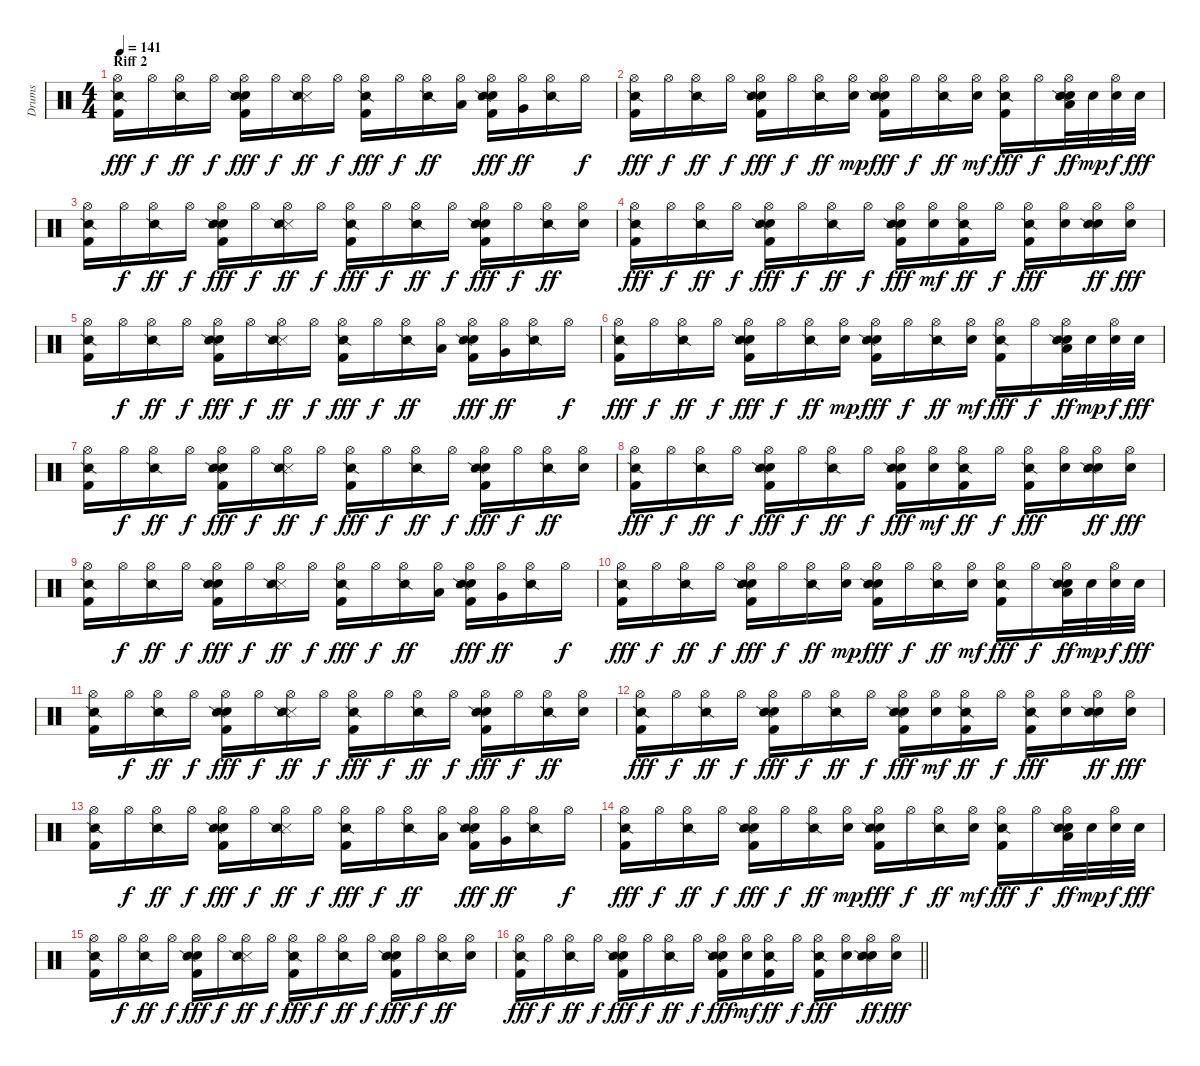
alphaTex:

\track ("Drums" "Drums") {instrument percussion}
\staff {score}
\articulation defaults
\ts (4 4)
\section ("" "Riff 2")
\tempo 141
\clef neutral
\ks c
("Kick (hit) 2" "Hi-Hat (open)" "Snare (side stick) 2").16{dy fff} "Hi-Hat (open)".16{dy f} ("Hi-Hat (open)" "Snare (side stick) 2").16{dy ff} "Hi-Hat (open)".16{dy f} ("Kick (hit) 2" "Snare (hit) 2" "Hi-Hat (open)" "Snare (side stick) 2").16{dy fff} "Hi-Hat (open)".16{dy f} ("Snare (side stick) 3" "Hi-Hat (open)" "Snare (side stick) 2").16{dy ff} "Hi-Hat (open)".16{dy f} ("Kick (hit) 2" "Hi-Hat (open)" "Snare (side stick) 2").16{dy fff} "Hi-Hat (open)".16{dy f} ("Hi-Hat (open)" "Snare (side stick) 2").16{dy ff} ("Hi-Hat (open)" "Low Floor Tom (hit)").16 ("Kick (hit) 2" "Snare (hit) 2" "Hi-Hat (open)" "Snare (side stick) 2").16{dy fff} ("Hi-Hat (open)" "Very Low Tom (hit)").16{dy ff} ("Hi-Hat (open)" "Snare (side stick) 2").16 "Hi-Hat (open)".16{dy f} |
("Kick (hit) 2" "Hi-Hat (open)" "Snare (side stick) 2").16{dy fff} "Hi-Hat (open)".16{dy f} ("Hi-Hat (open)" "Snare (side stick) 2").16{dy ff} "Hi-Hat (open)".16{dy f} ("Kick (hit) 2" "Snare (hit) 2" "Hi-Hat (open)" "Snare (side stick) 2").16{dy fff} "Hi-Hat (open)".16{dy f} ("Hi-Hat (open)" "Snare (side stick) 2").16{dy ff} ("Snare (hit) 2" "Hi-Hat (open)").16{dy mp} ("Kick (hit) 2" "Snare (hit) 2" "Hi-Hat (open)" "Snare (side stick) 2").16{dy fff} "Hi-Hat (open)".16{dy f} ("Hi-Hat (open)" "Snare (side stick) 2").16{dy ff} ("Snare (hit) 2" "Hi-Hat (open)").16{dy mf} ("Kick (hit) 2" "Hi-Hat (open)" "Snare (side stick) 2").16{dy fff} "Hi-Hat (open)".16{dy f} ("Snare (hit) 2" "Hi-Hat (open)" "Low Tom (hit)" "Snare (side stick) 2").32{dy ff} "Snare (hit) 2".32{dy mp} ("Snare (hit) 2" "Hi-Hat (open)").32{dy f} "Snare (hit) 2".32{dy fff} |
("Kick (hit) 2" "Hi-Hat (open)" "Snare (side stick) 2").16 "Hi-Hat (open)".16{dy f} ("Hi-Hat (open)" "Snare (side stick) 2").16{dy ff} "Hi-Hat (open)".16{dy f} ("Kick (hit) 2" "Snare (hit) 2" "Hi-Hat (open)" "Snare (side stick) 2").16{dy fff} "Hi-Hat (open)".16{dy f} ("Snare (side stick) 3" "Hi-Hat (open)" "Snare (side stick) 2").16{dy ff} "Hi-Hat (open)".16{dy f} ("Kick (hit) 2" "Hi-Hat (open)" "Snare (side stick) 2").16{dy fff} "Hi-Hat (open)".16{dy f} ("Hi-Hat (open)" "Snare (side stick) 2").16{dy ff} "Hi-Hat (open)".16{dy f} ("Kick (hit) 2" "Snare (hit) 2" "Hi-Hat (open)" "Snare (side stick) 2").16{dy fff} "Hi-Hat (open)".16{dy f} ("Hi-Hat (open)" "Snare (side stick) 2").16{dy ff} ("Snare (hit) 2" "Hi-Hat (open)").16 |
("Kick (hit) 2" "Hi-Hat (open)" "Snare (side stick) 2").16{dy fff} "Hi-Hat (open)".16{dy f} ("Hi-Hat (open)" "Snare (side stick) 2").16{dy ff} "Hi-Hat (open)".16{dy f} ("Kick (hit) 2" "Snare (hit) 2" "Hi-Hat (open)" "Snare (side stick) 2").16{dy fff} "Hi-Hat (open)".16{dy f} ("Hi-Hat (open)" "Snare (side stick) 2").16{dy ff} "Hi-Hat (open)".16{dy f} ("Kick (hit) 2" "Snare (hit) 2" "Hi-Hat (open)" "Snare (side stick) 2").16{dy fff} ("Snare (hit) 2" "Hi-Hat (open)").16{dy mf} ("Kick (hit) 2" "Hi-Hat (open)" "Snare (side stick) 2").16{dy ff} "Hi-Hat (open)".16{dy f} ("Kick (hit) 2" "Hi-Hat (open)" "Snare (side stick) 2").16{dy fff} ("Snare (hit) 2" "Hi-Hat (open)").16 ("Snare (hit) 2" "Hi-Hat (open)" "Snare (side stick) 2").16{dy ff} ("Snare (hit) 2" "Hi-Hat (open)").16{dy fff} |
("Kick (hit) 2" "Hi-Hat (open)" "Snare (side stick) 2").16 "Hi-Hat (open)".16{dy f} ("Hi-Hat (open)" "Snare (side stick) 2").16{dy ff} "Hi-Hat (open)".16{dy f} ("Kick (hit) 2" "Snare (hit) 2" "Hi-Hat (open)" "Snare (side stick) 2").16{dy fff} "Hi-Hat (open)".16{dy f} ("Snare (side stick) 3" "Hi-Hat (open)" "Snare (side stick) 2").16{dy ff} "Hi-Hat (open)".16{dy f} ("Kick (hit) 2" "Hi-Hat (open)" "Snare (side stick) 2").16{dy fff} "Hi-Hat (open)".16{dy f} ("Hi-Hat (open)" "Snare (side stick) 2").16{dy ff} ("Hi-Hat (open)" "Low Floor Tom (hit)").16 ("Kick (hit) 2" "Snare (hit) 2" "Hi-Hat (open)" "Snare (side stick) 2").16{dy fff} ("Hi-Hat (open)" "Very Low Tom (hit)").16{dy ff} ("Hi-Hat (open)" "Snare (side stick) 2").16 "Hi-Hat (open)".16{dy f} |
("Kick (hit) 2" "Hi-Hat (open)" "Snare (side stick) 2").16{dy fff} "Hi-Hat (open)".16{dy f} ("Hi-Hat (open)" "Snare (side stick) 2").16{dy ff} "Hi-Hat (open)".16{dy f} ("Kick (hit) 2" "Snare (hit) 2" "Hi-Hat (open)" "Snare (side stick) 2").16{dy fff} "Hi-Hat (open)".16{dy f} ("Hi-Hat (open)" "Snare (side stick) 2").16{dy ff} ("Snare (hit) 2" "Hi-Hat (open)").16{dy mp} ("Kick (hit) 2" "Snare (hit) 2" "Hi-Hat (open)" "Snare (side stick) 2").16{dy fff} "Hi-Hat (open)".16{dy f} ("Hi-Hat (open)" "Snare (side stick) 2").16{dy ff} ("Snare (hit) 2" "Hi-Hat (open)").16{dy mf} ("Kick (hit) 2" "Hi-Hat (open)" "Snare (side stick) 2").16{dy fff} "Hi-Hat (open)".16{dy f} ("Snare (hit) 2" "Hi-Hat (open)" "Low Tom (hit)" "Snare (side stick) 2").32{dy ff} "Snare (hit) 2".32{dy mp} ("Snare (hit) 2" "Hi-Hat (open)").32{dy f} "Snare (hit) 2".32{dy fff} |
("Kick (hit) 2" "Hi-Hat (open)" "Snare (side stick) 2").16 "Hi-Hat (open)".16{dy f} ("Hi-Hat (open)" "Snare (side stick) 2").16{dy ff} "Hi-Hat (open)".16{dy f} ("Kick (hit) 2" "Snare (hit) 2" "Hi-Hat (open)" "Snare (side stick) 2").16{dy fff} "Hi-Hat (open)".16{dy f} ("Snare (side stick) 3" "Hi-Hat (open)" "Snare (side stick) 2").16{dy ff} "Hi-Hat (open)".16{dy f} ("Kick (hit) 2" "Hi-Hat (open)" "Snare (side stick) 2").16{dy fff} "Hi-Hat (open)".16{dy f} ("Hi-Hat (open)" "Snare (side stick) 2").16{dy ff} "Hi-Hat (open)".16{dy f} ("Kick (hit) 2" "Snare (hit) 2" "Hi-Hat (open)" "Snare (side stick) 2").16{dy fff} "Hi-Hat (open)".16{dy f} ("Hi-Hat (open)" "Snare (side stick) 2").16{dy ff} ("Snare (hit) 2" "Hi-Hat (open)").16 |
("Kick (hit) 2" "Hi-Hat (open)" "Snare (side stick) 2").16{dy fff} "Hi-Hat (open)".16{dy f} ("Hi-Hat (open)" "Snare (side stick) 2").16{dy ff} "Hi-Hat (open)".16{dy f} ("Kick (hit) 2" "Snare (hit) 2" "Hi-Hat (open)" "Snare (side stick) 2").16{dy fff} "Hi-Hat (open)".16{dy f} ("Hi-Hat (open)" "Snare (side stick) 2").16{dy ff} "Hi-Hat (open)".16{dy f} ("Kick (hit) 2" "Snare (hit) 2" "Hi-Hat (open)" "Snare (side stick) 2").16{dy fff} ("Snare (hit) 2" "Hi-Hat (open)").16{dy mf} ("Kick (hit) 2" "Hi-Hat (open)" "Snare (side stick) 2").16{dy ff} "Hi-Hat (open)".16{dy f} ("Kick (hit) 2" "Hi-Hat (open)" "Snare (side stick) 2").16{dy fff} ("Snare (hit) 2" "Hi-Hat (open)").16 ("Snare (hit) 2" "Hi-Hat (open)" "Snare (side stick) 2").16{dy ff} ("Snare (hit) 2" "Hi-Hat (open)").16{dy fff} |
("Kick (hit) 2" "Hi-Hat (open)" "Snare (side stick) 2").16 "Hi-Hat (open)".16{dy f} ("Hi-Hat (open)" "Snare (side stick) 2").16{dy ff} "Hi-Hat (open)".16{dy f} ("Kick (hit) 2" "Snare (hit) 2" "Hi-Hat (open)" "Snare (side stick) 2").16{dy fff} "Hi-Hat (open)".16{dy f} ("Snare (side stick) 3" "Hi-Hat (open)" "Snare (side stick) 2").16{dy ff} "Hi-Hat (open)".16{dy f} ("Kick (hit) 2" "Hi-Hat (open)" "Snare (side stick) 2").16{dy fff} "Hi-Hat (open)".16{dy f} ("Hi-Hat (open)" "Snare (side stick) 2").16{dy ff} ("Hi-Hat (open)" "Low Floor Tom (hit)").16 ("Kick (hit) 2" "Snare (hit) 2" "Hi-Hat (open)" "Snare (side stick) 2").16{dy fff} ("Hi-Hat (open)" "Very Low Tom (hit)").16{dy ff} ("Hi-Hat (open)" "Snare (side stick) 2").16 "Hi-Hat (open)".16{dy f} |
("Kick (hit) 2" "Hi-Hat (open)" "Snare (side stick) 2").16{dy fff} "Hi-Hat (open)".16{dy f} ("Hi-Hat (open)" "Snare (side stick) 2").16{dy ff} "Hi-Hat (open)".16{dy f} ("Kick (hit) 2" "Snare (hit) 2" "Hi-Hat (open)" "Snare (side stick) 2").16{dy fff} "Hi-Hat (open)".16{dy f} ("Hi-Hat (open)" "Snare (side stick) 2").16{dy ff} ("Snare (hit) 2" "Hi-Hat (open)").16{dy mp} ("Kick (hit) 2" "Snare (hit) 2" "Hi-Hat (open)" "Snare (side stick) 2").16{dy fff} "Hi-Hat (open)".16{dy f} ("Hi-Hat (open)" "Snare (side stick) 2").16{dy ff} ("Snare (hit) 2" "Hi-Hat (open)").16{dy mf} ("Kick (hit) 2" "Hi-Hat (open)" "Snare (side stick) 2").16{dy fff} "Hi-Hat (open)".16{dy f} ("Snare (hit) 2" "Hi-Hat (open)" "Low Tom (hit)" "Snare (side stick) 2").32{dy ff} "Snare (hit) 2".32{dy mp} ("Snare (hit) 2" "Hi-Hat (open)").32{dy f} "Snare (hit) 2".32{dy fff} |
("Kick (hit) 2" "Hi-Hat (open)" "Snare (side stick) 2").16 "Hi-Hat (open)".16{dy f} ("Hi-Hat (open)" "Snare (side stick) 2").16{dy ff} "Hi-Hat (open)".16{dy f} ("Kick (hit) 2" "Snare (hit) 2" "Hi-Hat (open)" "Snare (side stick) 2").16{dy fff} "Hi-Hat (open)".16{dy f} ("Snare (side stick) 3" "Hi-Hat (open)" "Snare (side stick) 2").16{dy ff} "Hi-Hat (open)".16{dy f} ("Kick (hit) 2" "Hi-Hat (open)" "Snare (side stick) 2").16{dy fff} "Hi-Hat (open)".16{dy f} ("Hi-Hat (open)" "Snare (side stick) 2").16{dy ff} "Hi-Hat (open)".16{dy f} ("Kick (hit) 2" "Snare (hit) 2" "Hi-Hat (open)" "Snare (side stick) 2").16{dy fff} "Hi-Hat (open)".16{dy f} ("Hi-Hat (open)" "Snare (side stick) 2").16{dy ff} ("Snare (hit) 2" "Hi-Hat (open)").16 |
("Kick (hit) 2" "Hi-Hat (open)" "Snare (side stick) 2").16{dy fff} "Hi-Hat (open)".16{dy f} ("Hi-Hat (open)" "Snare (side stick) 2").16{dy ff} "Hi-Hat (open)".16{dy f} ("Kick (hit) 2" "Snare (hit) 2" "Hi-Hat (open)" "Snare (side stick) 2").16{dy fff} "Hi-Hat (open)".16{dy f} ("Hi-Hat (open)" "Snare (side stick) 2").16{dy ff} "Hi-Hat (open)".16{dy f} ("Kick (hit) 2" "Snare (hit) 2" "Hi-Hat (open)" "Snare (side stick) 2").16{dy fff} ("Snare (hit) 2" "Hi-Hat (open)").16{dy mf} ("Kick (hit) 2" "Hi-Hat (open)" "Snare (side stick) 2").16{dy ff} "Hi-Hat (open)".16{dy f} ("Kick (hit) 2" "Hi-Hat (open)" "Snare (side stick) 2").16{dy fff} ("Snare (hit) 2" "Hi-Hat (open)").16 ("Snare (hit) 2" "Hi-Hat (open)" "Snare (side stick) 2").16{dy ff} ("Snare (hit) 2" "Hi-Hat (open)").16{dy fff} |
("Kick (hit) 2" "Hi-Hat (open)" "Snare (side stick) 2").16 "Hi-Hat (open)".16{dy f} ("Hi-Hat (open)" "Snare (side stick) 2").16{dy ff} "Hi-Hat (open)".16{dy f} ("Kick (hit) 2" "Snare (hit) 2" "Hi-Hat (open)" "Snare (side stick) 2").16{dy fff} "Hi-Hat (open)".16{dy f} ("Snare (side stick) 3" "Hi-Hat (open)" "Snare (side stick) 2").16{dy ff} "Hi-Hat (open)".16{dy f} ("Kick (hit) 2" "Hi-Hat (open)" "Snare (side stick) 2").16{dy fff} "Hi-Hat (open)".16{dy f} ("Hi-Hat (open)" "Snare (side stick) 2").16{dy ff} ("Hi-Hat (open)" "Low Floor Tom (hit)").16 ("Kick (hit) 2" "Snare (hit) 2" "Hi-Hat (open)" "Snare (side stick) 2").16{dy fff} ("Hi-Hat (open)" "Very Low Tom (hit)").16{dy ff} ("Hi-Hat (open)" "Snare (side stick) 2").16 "Hi-Hat (open)".16{dy f} |
("Kick (hit) 2" "Hi-Hat (open)" "Snare (side stick) 2").16{dy fff} "Hi-Hat (open)".16{dy f} ("Hi-Hat (open)" "Snare (side stick) 2").16{dy ff} "Hi-Hat (open)".16{dy f} ("Kick (hit) 2" "Snare (hit) 2" "Hi-Hat (open)" "Snare (side stick) 2").16{dy fff} "Hi-Hat (open)".16{dy f} ("Hi-Hat (open)" "Snare (side stick) 2").16{dy ff} ("Snare (hit) 2" "Hi-Hat (open)").16{dy mp} ("Kick (hit) 2" "Snare (hit) 2" "Hi-Hat (open)" "Snare (side stick) 2").16{dy fff} "Hi-Hat (open)".16{dy f} ("Hi-Hat (open)" "Snare (side stick) 2").16{dy ff} ("Snare (hit) 2" "Hi-Hat (open)").16{dy mf} ("Kick (hit) 2" "Hi-Hat (open)" "Snare (side stick) 2").16{dy fff} "Hi-Hat (open)".16{dy f} ("Snare (hit) 2" "Hi-Hat (open)" "Low Tom (hit)" "Snare (side stick) 2").32{dy ff} "Snare (hit) 2".32{dy mp} ("Snare (hit) 2" "Hi-Hat (open)").32{dy f} "Snare (hit) 2".32{dy fff} |
("Kick (hit) 2" "Hi-Hat (open)" "Snare (side stick) 2").16 "Hi-Hat (open)".16{dy f} ("Hi-Hat (open)" "Snare (side stick) 2").16{dy ff} "Hi-Hat (open)".16{dy f} ("Kick (hit) 2" "Snare (hit) 2" "Hi-Hat (open)" "Snare (side stick) 2").16{dy fff} "Hi-Hat (open)".16{dy f} ("Snare (side stick) 3" "Hi-Hat (open)" "Snare (side stick) 2").16{dy ff} "Hi-Hat (open)".16{dy f} ("Kick (hit) 2" "Hi-Hat (open)" "Snare (side stick) 2").16{dy fff} "Hi-Hat (open)".16{dy f} ("Hi-Hat (open)" "Snare (side stick) 2").16{dy ff} "Hi-Hat (open)".16{dy f} ("Kick (hit) 2" "Snare (hit) 2" "Hi-Hat (open)" "Snare (side stick) 2").16{dy fff} "Hi-Hat (open)".16{dy f} ("Hi-Hat (open)" "Snare (side stick) 2").16{dy ff} ("Snare (hit) 2" "Hi-Hat (open)").16 |
\barLineRight lightlight
("Kick (hit) 2" "Hi-Hat (open)" "Snare (side stick) 2").16{dy fff} "Hi-Hat (open)".16{dy f} ("Hi-Hat (open)" "Snare (side stick) 2").16{dy ff} "Hi-Hat (open)".16{dy f} ("Kick (hit) 2" "Snare (hit) 2" "Hi-Hat (open)" "Snare (side stick) 2").16{dy fff} "Hi-Hat (open)".16{dy f} ("Hi-Hat (open)" "Snare (side stick) 2").16{dy ff} "Hi-Hat (open)".16{dy f} ("Kick (hit) 2" "Snare (hit) 2" "Hi-Hat (open)" "Snare (side stick) 2").16{dy fff} ("Snare (hit) 2" "Hi-Hat (open)").16{dy mf} ("Kick (hit) 2" "Hi-Hat (open)" "Snare (side stick) 2").16{dy ff} "Hi-Hat (open)".16{dy f} ("Kick (hit) 2" "Hi-Hat (open)" "Snare (side stick) 2").16{dy fff} ("Snare (hit) 2" "Hi-Hat (open)").16 ("Snare (hit) 2" "Hi-Hat (open)" "Snare (side stick) 2").16{dy ff} ("Snare (hit) 2" "Hi-Hat (open)").16{dy fff}
